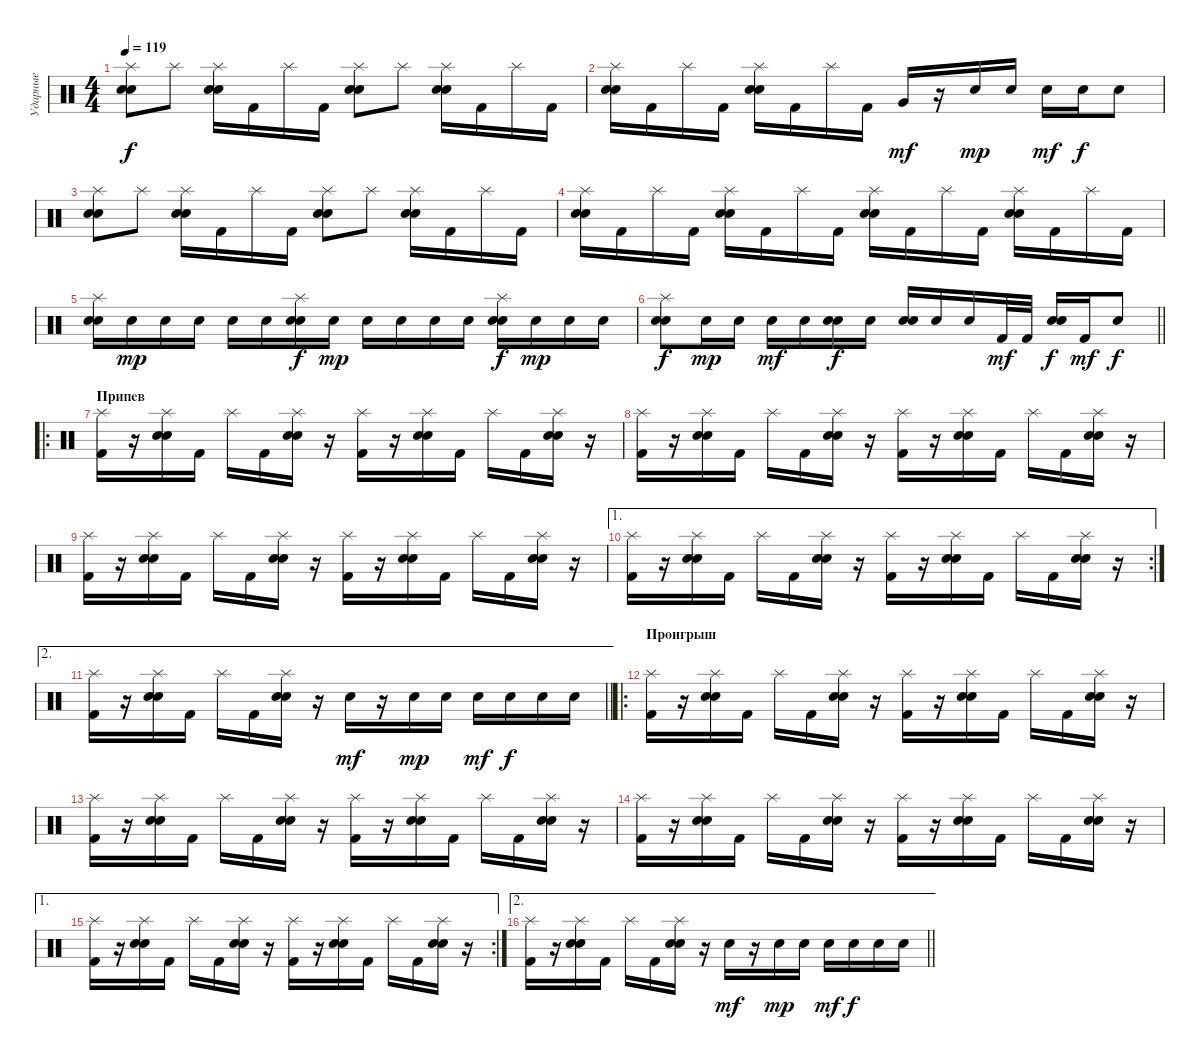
\track ("Ударные" "Ударные") {instrument percussion}
\staff {score}
\articulation defaults
\ts (4 4)
\tempo 119
\clef neutral
\ks c
("Splash (hit)" "Electric Snare (hit)" "Snare (hit) 2").8{dy f} "Splash (hit)".8 ("Splash (hit)" "Electric Snare (hit)" "Snare (hit) 2").16 "Kick (hit) 2".16 "Splash (hit)".16 "Kick (hit) 2".16 ("Splash (hit)" "Electric Snare (hit)" "Snare (hit) 2").8 "Splash (hit)".8 ("Splash (hit)" "Electric Snare (hit)" "Snare (hit) 2").16 "Kick (hit) 2".16 "Splash (hit)".16 "Kick (hit) 2".16 |
("Splash (hit)" "Electric Snare (hit)" "Snare (hit) 2").16 "Kick (hit) 2".16 "Splash (hit)".16 "Kick (hit) 2".16 ("Splash (hit)" "Electric Snare (hit)" "Snare (hit) 2").16 "Kick (hit) 2".16 "Splash (hit)".16 "Kick (hit) 2".16 "Very Low Tom (hit)".16{dy mf} r.16 "Electric Snare (hit)".16{dy mp} "Electric Snare (hit)".16 "Electric Snare (hit)".16{dy mf} "Electric Snare (hit)".16{dy f} "Electric Snare (hit)".8 |
("Splash (hit)" "Electric Snare (hit)" "Snare (hit) 2").8 "Splash (hit)".8 ("Splash (hit)" "Electric Snare (hit)" "Snare (hit) 2").16 "Kick (hit) 2".16 "Splash (hit)".16 "Kick (hit) 2".16 ("Splash (hit)" "Electric Snare (hit)" "Snare (hit) 2").8 "Splash (hit)".8 ("Splash (hit)" "Electric Snare (hit)" "Snare (hit) 2").16 "Kick (hit) 2".16 "Splash (hit)".16 "Kick (hit) 2".16 |
("Splash (hit)" "Electric Snare (hit)" "Snare (hit) 2").16 "Kick (hit) 2".16 "Splash (hit)".16 "Kick (hit) 2".16 ("Splash (hit)" "Electric Snare (hit)" "Snare (hit) 2").16 "Kick (hit) 2".16 "Splash (hit)".16 "Kick (hit) 2".16 ("Splash (hit)" "Electric Snare (hit)" "Snare (hit) 2").16 "Kick (hit) 2".16 "Splash (hit)".16 "Kick (hit) 2".16 ("Splash (hit)" "Electric Snare (hit)" "Snare (hit) 2").16 "Kick (hit) 2".16 "Splash (hit)".16 "Kick (hit) 2".16 |
("Splash (hit)" "Electric Snare (hit)" "Snare (hit) 2").16 "Electric Snare (hit)".16{dy mp} "Electric Snare (hit)".16 "Electric Snare (hit)".16 "Electric Snare (hit)".16 "Electric Snare (hit)".16 ("Splash (hit)" "Electric Snare (hit)" "Snare (hit) 2").16{dy f} "Electric Snare (hit)".16{dy mp} "Electric Snare (hit)".16 "Electric Snare (hit)".16 "Electric Snare (hit)".16 "Electric Snare (hit)".16 ("Splash (hit)" "Electric Snare (hit)" "Snare (hit) 2").16{dy f} "Electric Snare (hit)".16{dy mp} "Electric Snare (hit)".16 "Electric Snare (hit)".16 |
\barLineRight lightlight
("Splash (hit)" "Electric Snare (hit)" "Snare (hit) 2").8{dy f} "Electric Snare (hit)".16{dy mp} "Electric Snare (hit)".16 "Electric Snare (hit)".16{dy mf} "Electric Snare (hit)".16 ("Electric Snare (hit)" "Snare (hit) 2").16{dy f} "Electric Snare (hit)".16 ("Electric Snare (hit)" "Snare (hit) 2").16 "Electric Snare (hit)".16 "Electric Snare (hit)".16 "Kick (hit) 2".32{dy mf} "Kick (hit) 2".32 ("Electric Snare (hit)" "Snare (hit) 2").16{dy f} "Kick (hit) 2".16{dy mf} "Electric Snare (hit)".8{dy f} |
\ro
\section ("" "Припев")
("Splash (hit)" "Kick (hit) 2").16 r.16 ("Splash (hit)" "Electric Snare (hit)" "Snare (hit) 2").16 "Kick (hit) 2".16 "Splash (hit)".16 "Kick (hit) 2".16 ("Splash (hit)" "Electric Snare (hit)" "Snare (hit) 2").16 r.16 ("Splash (hit)" "Kick (hit) 2").16 r.16 ("Splash (hit)" "Electric Snare (hit)" "Snare (hit) 2").16 "Kick (hit) 2".16 "Splash (hit)".16 "Kick (hit) 2".16 ("Splash (hit)" "Electric Snare (hit)" "Snare (hit) 2").16 r.16 |
("Splash (hit)" "Kick (hit) 2").16 r.16 ("Splash (hit)" "Electric Snare (hit)" "Snare (hit) 2").16 "Kick (hit) 2".16 "Splash (hit)".16 "Kick (hit) 2".16 ("Splash (hit)" "Electric Snare (hit)" "Snare (hit) 2").16 r.16 ("Splash (hit)" "Kick (hit) 2").16 r.16 ("Splash (hit)" "Electric Snare (hit)" "Snare (hit) 2").16 "Kick (hit) 2".16 "Splash (hit)".16 "Kick (hit) 2".16 ("Splash (hit)" "Electric Snare (hit)" "Snare (hit) 2").16 r.16 |
("Splash (hit)" "Kick (hit) 2").16 r.16 ("Splash (hit)" "Electric Snare (hit)" "Snare (hit) 2").16 "Kick (hit) 2".16 "Splash (hit)".16 "Kick (hit) 2".16 ("Splash (hit)" "Electric Snare (hit)" "Snare (hit) 2").16 r.16 ("Splash (hit)" "Kick (hit) 2").16 r.16 ("Splash (hit)" "Electric Snare (hit)" "Snare (hit) 2").16 "Kick (hit) 2".16 "Splash (hit)".16 "Kick (hit) 2".16 ("Splash (hit)" "Electric Snare (hit)" "Snare (hit) 2").16 r.16 |
\ae 1
\rc 2
("Splash (hit)" "Kick (hit) 2").16 r.16 ("Splash (hit)" "Electric Snare (hit)" "Snare (hit) 2").16 "Kick (hit) 2".16 "Splash (hit)".16 "Kick (hit) 2".16 ("Splash (hit)" "Electric Snare (hit)" "Snare (hit) 2").16 r.16 ("Splash (hit)" "Kick (hit) 2").16 r.16 ("Splash (hit)" "Electric Snare (hit)" "Snare (hit) 2").16 "Kick (hit) 2".16 "Splash (hit)".16 "Kick (hit) 2".16 ("Splash (hit)" "Electric Snare (hit)" "Snare (hit) 2").16 r.16 |
\ae 2
\barLineRight lightlight
("Splash (hit)" "Kick (hit) 2").16 r.16 ("Splash (hit)" "Electric Snare (hit)" "Snare (hit) 2").16 "Kick (hit) 2".16 "Splash (hit)".16 "Kick (hit) 2".16 ("Splash (hit)" "Electric Snare (hit)" "Snare (hit) 2").16 r.16 "Electric Snare (hit)".16{dy mf} r.16 "Electric Snare (hit)".16{dy mp} "Electric Snare (hit)".16 "Electric Snare (hit)".16{dy mf} "Electric Snare (hit)".16{dy f} "Electric Snare (hit)".16 "Electric Snare (hit)".16 |
\ro
\section ("" "Проигрыш")
("Splash (hit)" "Kick (hit) 2").16 r.16 ("Splash (hit)" "Electric Snare (hit)" "Snare (hit) 2").16 "Kick (hit) 2".16 "Splash (hit)".16 "Kick (hit) 2".16 ("Splash (hit)" "Electric Snare (hit)" "Snare (hit) 2").16 r.16 ("Splash (hit)" "Kick (hit) 2").16 r.16 ("Splash (hit)" "Electric Snare (hit)" "Snare (hit) 2").16 "Kick (hit) 2".16 "Splash (hit)".16 "Kick (hit) 2".16 ("Splash (hit)" "Electric Snare (hit)" "Snare (hit) 2").16 r.16 |
("Splash (hit)" "Kick (hit) 2").16 r.16 ("Splash (hit)" "Electric Snare (hit)" "Snare (hit) 2").16 "Kick (hit) 2".16 "Splash (hit)".16 "Kick (hit) 2".16 ("Splash (hit)" "Electric Snare (hit)" "Snare (hit) 2").16 r.16 ("Splash (hit)" "Kick (hit) 2").16 r.16 ("Splash (hit)" "Electric Snare (hit)" "Snare (hit) 2").16 "Kick (hit) 2".16 "Splash (hit)".16 "Kick (hit) 2".16 ("Splash (hit)" "Electric Snare (hit)" "Snare (hit) 2").16 r.16 |
("Splash (hit)" "Kick (hit) 2").16 r.16 ("Splash (hit)" "Electric Snare (hit)" "Snare (hit) 2").16 "Kick (hit) 2".16 "Splash (hit)".16 "Kick (hit) 2".16 ("Splash (hit)" "Electric Snare (hit)" "Snare (hit) 2").16 r.16 ("Splash (hit)" "Kick (hit) 2").16 r.16 ("Splash (hit)" "Electric Snare (hit)" "Snare (hit) 2").16 "Kick (hit) 2".16 "Splash (hit)".16 "Kick (hit) 2".16 ("Splash (hit)" "Electric Snare (hit)" "Snare (hit) 2").16 r.16 |
\ae 1
\rc 2
("Splash (hit)" "Kick (hit) 2").16 r.16 ("Splash (hit)" "Electric Snare (hit)" "Snare (hit) 2").16 "Kick (hit) 2".16 "Splash (hit)".16 "Kick (hit) 2".16 ("Splash (hit)" "Electric Snare (hit)" "Snare (hit) 2").16 r.16 ("Splash (hit)" "Kick (hit) 2").16 r.16 ("Splash (hit)" "Electric Snare (hit)" "Snare (hit) 2").16 "Kick (hit) 2".16 "Splash (hit)".16 "Kick (hit) 2".16 ("Splash (hit)" "Electric Snare (hit)" "Snare (hit) 2").16 r.16 |
\ae 2
\barLineRight lightlight
("Splash (hit)" "Kick (hit) 2").16 r.16 ("Splash (hit)" "Electric Snare (hit)" "Snare (hit) 2").16 "Kick (hit) 2".16 "Splash (hit)".16 "Kick (hit) 2".16 ("Splash (hit)" "Electric Snare (hit)" "Snare (hit) 2").16 r.16 "Electric Snare (hit)".16{dy mf} r.16 "Electric Snare (hit)".16{dy mp} "Electric Snare (hit)".16 "Electric Snare (hit)".16{dy mf} "Electric Snare (hit)".16{dy f} "Electric Snare (hit)".16 "Electric Snare (hit)".16
